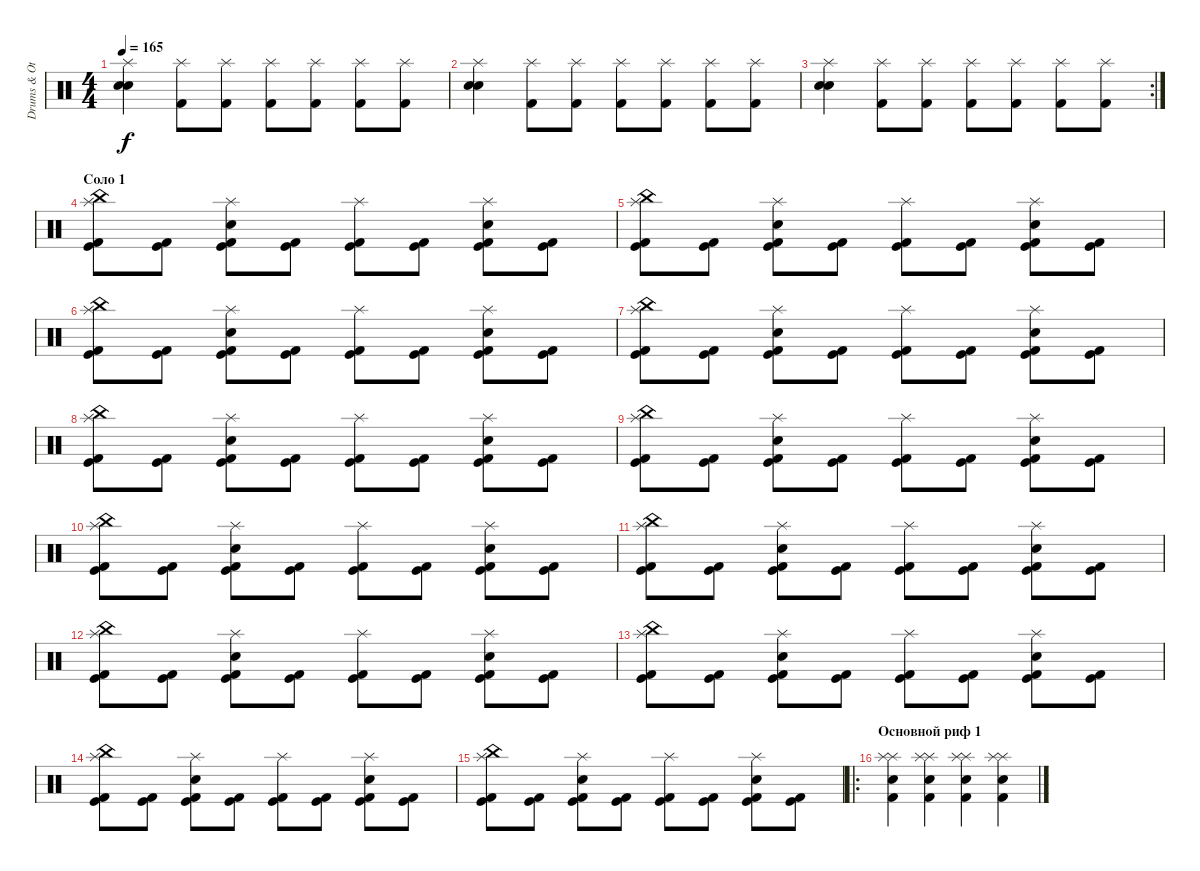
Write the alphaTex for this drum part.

\track ("Drums & Other percussion" "Drums & Ot") {instrument percussion}
\staff {score}
\articulation defaults
\ts (4 4)
\tempo 165
\clef neutral
\ks c
("Splash (hit)" "Electric Snare (hit)" "Electric Snare (hit)").4{dy f} ("Splash (hit)" "Kick (hit) 2").8 ("Splash (hit)" "Kick (hit) 2").8 ("Splash (hit)" "Kick (hit) 2").8 ("Splash (hit)" "Kick (hit) 2").8 ("Splash (hit)" "Kick (hit) 2").8 ("Splash (hit)" "Kick (hit) 2").8 |
("Splash (hit)" "Electric Snare (hit)" "Electric Snare (hit)").4 ("Splash (hit)" "Kick (hit) 2").8 ("Splash (hit)" "Kick (hit) 2").8 ("Splash (hit)" "Kick (hit) 2").8 ("Splash (hit)" "Kick (hit) 2").8 ("Splash (hit)" "Kick (hit) 2").8 ("Splash (hit)" "Kick (hit) 2").8 |
\rc 2
("Splash (hit)" "Electric Snare (hit)" "Electric Snare (hit)").4 ("Splash (hit)" "Kick (hit) 2").8 ("Splash (hit)" "Kick (hit) 2").8 ("Splash (hit)" "Kick (hit) 2").8 ("Splash (hit)" "Kick (hit) 2").8 ("Splash (hit)" "Kick (hit) 2").8 ("Splash (hit)" "Kick (hit) 2").8 |
\section ("" "Соло 1")
("China (hit)" "Splash (hit)" "Kick (hit) 2" "Kick (hit)").8 ("Kick (hit) 2" "Kick (hit)").8 ("Splash (hit)" "Electric Snare (hit)" "Kick (hit) 2" "Kick (hit)").8 ("Kick (hit) 2" "Kick (hit)").8 ("Splash (hit)" "Kick (hit) 2" "Kick (hit)").8 ("Kick (hit) 2" "Kick (hit)").8 ("Splash (hit)" "Electric Snare (hit)" "Kick (hit) 2" "Kick (hit)").8 ("Kick (hit) 2" "Kick (hit)").8 |
("China (hit)" "Splash (hit)" "Kick (hit) 2" "Kick (hit)").8 ("Kick (hit) 2" "Kick (hit)").8 ("Splash (hit)" "Electric Snare (hit)" "Kick (hit) 2" "Kick (hit)").8 ("Kick (hit) 2" "Kick (hit)").8 ("Splash (hit)" "Kick (hit) 2" "Kick (hit)").8 ("Kick (hit) 2" "Kick (hit)").8 ("Splash (hit)" "Electric Snare (hit)" "Kick (hit) 2" "Kick (hit)").8 ("Kick (hit) 2" "Kick (hit)").8 |
("China (hit)" "Splash (hit)" "Kick (hit) 2" "Kick (hit)").8 ("Kick (hit) 2" "Kick (hit)").8 ("Splash (hit)" "Electric Snare (hit)" "Kick (hit) 2" "Kick (hit)").8 ("Kick (hit) 2" "Kick (hit)").8 ("Splash (hit)" "Kick (hit) 2" "Kick (hit)").8 ("Kick (hit) 2" "Kick (hit)").8 ("Splash (hit)" "Electric Snare (hit)" "Kick (hit) 2" "Kick (hit)").8 ("Kick (hit) 2" "Kick (hit)").8 |
("China (hit)" "Splash (hit)" "Kick (hit) 2" "Kick (hit)").8 ("Kick (hit) 2" "Kick (hit)").8 ("Splash (hit)" "Electric Snare (hit)" "Kick (hit) 2" "Kick (hit)").8 ("Kick (hit) 2" "Kick (hit)").8 ("Splash (hit)" "Kick (hit) 2" "Kick (hit)").8 ("Kick (hit) 2" "Kick (hit)").8 ("Splash (hit)" "Electric Snare (hit)" "Kick (hit) 2" "Kick (hit)").8 ("Kick (hit) 2" "Kick (hit)").8 |
("China (hit)" "Splash (hit)" "Kick (hit) 2" "Kick (hit)").8 ("Kick (hit) 2" "Kick (hit)").8 ("Splash (hit)" "Electric Snare (hit)" "Kick (hit) 2" "Kick (hit)").8 ("Kick (hit) 2" "Kick (hit)").8 ("Splash (hit)" "Kick (hit) 2" "Kick (hit)").8 ("Kick (hit) 2" "Kick (hit)").8 ("Splash (hit)" "Electric Snare (hit)" "Kick (hit) 2" "Kick (hit)").8 ("Kick (hit) 2" "Kick (hit)").8 |
("China (hit)" "Splash (hit)" "Kick (hit) 2" "Kick (hit)").8 ("Kick (hit) 2" "Kick (hit)").8 ("Splash (hit)" "Electric Snare (hit)" "Kick (hit) 2" "Kick (hit)").8 ("Kick (hit) 2" "Kick (hit)").8 ("Splash (hit)" "Kick (hit) 2" "Kick (hit)").8 ("Kick (hit) 2" "Kick (hit)").8 ("Splash (hit)" "Electric Snare (hit)" "Kick (hit) 2" "Kick (hit)").8 ("Kick (hit) 2" "Kick (hit)").8 |
("China (hit)" "Splash (hit)" "Kick (hit) 2" "Kick (hit)").8 ("Kick (hit) 2" "Kick (hit)").8 ("Splash (hit)" "Electric Snare (hit)" "Kick (hit) 2" "Kick (hit)").8 ("Kick (hit) 2" "Kick (hit)").8 ("Splash (hit)" "Kick (hit) 2" "Kick (hit)").8 ("Kick (hit) 2" "Kick (hit)").8 ("Splash (hit)" "Electric Snare (hit)" "Kick (hit) 2" "Kick (hit)").8 ("Kick (hit) 2" "Kick (hit)").8 |
("China (hit)" "Splash (hit)" "Kick (hit) 2" "Kick (hit)").8 ("Kick (hit) 2" "Kick (hit)").8 ("Splash (hit)" "Electric Snare (hit)" "Kick (hit) 2" "Kick (hit)").8 ("Kick (hit) 2" "Kick (hit)").8 ("Splash (hit)" "Kick (hit) 2" "Kick (hit)").8 ("Kick (hit) 2" "Kick (hit)").8 ("Splash (hit)" "Electric Snare (hit)" "Kick (hit) 2" "Kick (hit)").8 ("Kick (hit) 2" "Kick (hit)").8 |
("China (hit)" "Splash (hit)" "Kick (hit) 2" "Kick (hit)").8 ("Kick (hit) 2" "Kick (hit)").8 ("Splash (hit)" "Electric Snare (hit)" "Kick (hit) 2" "Kick (hit)").8 ("Kick (hit) 2" "Kick (hit)").8 ("Splash (hit)" "Kick (hit) 2" "Kick (hit)").8 ("Kick (hit) 2" "Kick (hit)").8 ("Splash (hit)" "Electric Snare (hit)" "Kick (hit) 2" "Kick (hit)").8 ("Kick (hit) 2" "Kick (hit)").8 |
("China (hit)" "Splash (hit)" "Kick (hit) 2" "Kick (hit)").8 ("Kick (hit) 2" "Kick (hit)").8 ("Splash (hit)" "Electric Snare (hit)" "Kick (hit) 2" "Kick (hit)").8 ("Kick (hit) 2" "Kick (hit)").8 ("Splash (hit)" "Kick (hit) 2" "Kick (hit)").8 ("Kick (hit) 2" "Kick (hit)").8 ("Splash (hit)" "Electric Snare (hit)" "Kick (hit) 2" "Kick (hit)").8 ("Kick (hit) 2" "Kick (hit)").8 |
("China (hit)" "Splash (hit)" "Kick (hit) 2" "Kick (hit)").8 ("Kick (hit) 2" "Kick (hit)").8 ("Splash (hit)" "Electric Snare (hit)" "Kick (hit) 2" "Kick (hit)").8 ("Kick (hit) 2" "Kick (hit)").8 ("Splash (hit)" "Kick (hit) 2" "Kick (hit)").8 ("Kick (hit) 2" "Kick (hit)").8 ("Splash (hit)" "Electric Snare (hit)" "Kick (hit) 2" "Kick (hit)").8 ("Kick (hit) 2" "Kick (hit)").8 |
("China (hit)" "Splash (hit)" "Kick (hit) 2" "Kick (hit)").8 ("Kick (hit) 2" "Kick (hit)").8 ("Splash (hit)" "Electric Snare (hit)" "Kick (hit) 2" "Kick (hit)").8 ("Kick (hit) 2" "Kick (hit)").8 ("Splash (hit)" "Kick (hit) 2" "Kick (hit)").8 ("Kick (hit) 2" "Kick (hit)").8 ("Splash (hit)" "Electric Snare (hit)" "Kick (hit) 2" "Kick (hit)").8 ("Kick (hit) 2" "Kick (hit)").8 |
\ro
\section ("" "Основной риф 1")
("Splash (hit)" "Splash (hit)" "Electric Snare (hit)" "Kick (hit) 2").4 ("Splash (hit)" "Splash (hit)" "Electric Snare (hit)" "Kick (hit) 2").4 ("Splash (hit)" "Splash (hit)" "Electric Snare (hit)" "Kick (hit) 2").4 ("Splash (hit)" "Splash (hit)" "Electric Snare (hit)" "Kick (hit) 2").4
